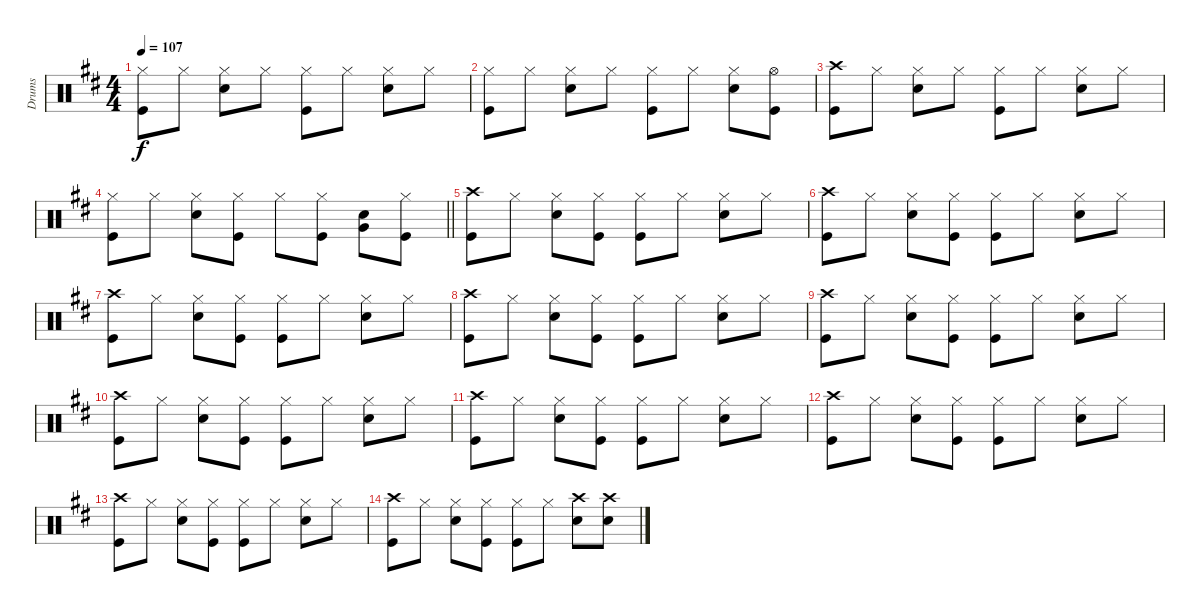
\track ("Drums" "Drums") {instrument percussion}
\staff {score}
\articulation defaults
\ts (4 4)
\tempo 107
\clef neutral
\ks d
("Hi-Hat (closed)" "Kick (hit)").8{dy f} "Hi-Hat (closed)".8 ("Hi-Hat (closed)" "Snare (hit) 2").8 "Hi-Hat (closed)".8 ("Hi-Hat (closed)" "Kick (hit)").8 "Hi-Hat (closed)".8 ("Hi-Hat (closed)" "Snare (hit) 2").8 "Hi-Hat (closed)".8 |
("Hi-Hat (closed)" "Kick (hit)").8 "Hi-Hat (closed)".8 ("Hi-Hat (closed)" "Snare (hit) 2").8 "Hi-Hat (closed)".8 ("Hi-Hat (closed)" "Kick (hit)").8 "Hi-Hat (closed)".8 ("Hi-Hat (closed)" "Snare (hit) 2").8 ("Hi-Hat (open)" "Kick (hit)").8 |
("Crash high (hit)" "Kick (hit)").8 "Hi-Hat (closed)".8 ("Hi-Hat (closed)" "Snare (hit) 2").8 "Hi-Hat (closed)".8 ("Hi-Hat (closed)" "Kick (hit)").8 "Hi-Hat (closed)".8 ("Hi-Hat (closed)" "Snare (hit) 2").8 "Hi-Hat (closed)".8 |
\barLineRight lightlight
("Hi-Hat (closed)" "Kick (hit)").8 "Hi-Hat (closed)".8 ("Hi-Hat (closed)" "Snare (hit) 2").8 ("Hi-Hat (closed)" "Kick (hit)").8 "Hi-Hat (closed)".8 ("Hi-Hat (closed)" "Kick (hit)").8 ("Snare (hit) 2" "Very Low Tom (hit)").8 ("Hi-Hat (closed)" "Kick (hit)").8 |
("Crash high (hit)" "Kick (hit)").8 "Hi-Hat (closed)".8 ("Hi-Hat (closed)" "Snare (hit) 2").8 ("Hi-Hat (closed)" "Kick (hit)").8 ("Hi-Hat (closed)" "Kick (hit)").8 "Hi-Hat (closed)".8 ("Hi-Hat (closed)" "Snare (hit) 2").8 "Hi-Hat (closed)".8 |
("Crash high (hit)" "Kick (hit)").8 "Hi-Hat (closed)".8 ("Hi-Hat (closed)" "Snare (hit) 2").8 ("Hi-Hat (closed)" "Kick (hit)").8 ("Hi-Hat (closed)" "Kick (hit)").8 "Hi-Hat (closed)".8 ("Hi-Hat (closed)" "Snare (hit) 2").8 "Hi-Hat (closed)".8 |
("Crash high (hit)" "Kick (hit)").8 "Hi-Hat (closed)".8 ("Hi-Hat (closed)" "Snare (hit) 2").8 ("Hi-Hat (closed)" "Kick (hit)").8 ("Hi-Hat (closed)" "Kick (hit)").8 "Hi-Hat (closed)".8 ("Hi-Hat (closed)" "Snare (hit) 2").8 "Hi-Hat (closed)".8 |
("Crash high (hit)" "Kick (hit)").8 "Hi-Hat (closed)".8 ("Hi-Hat (closed)" "Snare (hit) 2").8 ("Hi-Hat (closed)" "Kick (hit)").8 ("Hi-Hat (closed)" "Kick (hit)").8 "Hi-Hat (closed)".8 ("Hi-Hat (closed)" "Snare (hit) 2").8 "Hi-Hat (closed)".8 |
("Crash high (hit)" "Kick (hit)").8 "Hi-Hat (closed)".8 ("Hi-Hat (closed)" "Snare (hit) 2").8 ("Hi-Hat (closed)" "Kick (hit)").8 ("Hi-Hat (closed)" "Kick (hit)").8 "Hi-Hat (closed)".8 ("Hi-Hat (closed)" "Snare (hit) 2").8 "Hi-Hat (closed)".8 |
("Crash high (hit)" "Kick (hit)").8 "Hi-Hat (closed)".8 ("Hi-Hat (closed)" "Snare (hit) 2").8 ("Hi-Hat (closed)" "Kick (hit)").8 ("Hi-Hat (closed)" "Kick (hit)").8 "Hi-Hat (closed)".8 ("Hi-Hat (closed)" "Snare (hit) 2").8 "Hi-Hat (closed)".8 |
("Crash high (hit)" "Kick (hit)").8 "Hi-Hat (closed)".8 ("Hi-Hat (closed)" "Snare (hit) 2").8 ("Hi-Hat (closed)" "Kick (hit)").8 ("Hi-Hat (closed)" "Kick (hit)").8 "Hi-Hat (closed)".8 ("Hi-Hat (closed)" "Snare (hit) 2").8 "Hi-Hat (closed)".8 |
("Crash high (hit)" "Kick (hit)").8 "Hi-Hat (closed)".8 ("Hi-Hat (closed)" "Snare (hit) 2").8 ("Hi-Hat (closed)" "Kick (hit)").8 ("Hi-Hat (closed)" "Kick (hit)").8 "Hi-Hat (closed)".8 ("Hi-Hat (closed)" "Snare (hit) 2").8 "Hi-Hat (closed)".8 |
("Crash high (hit)" "Kick (hit)").8 "Hi-Hat (closed)".8 ("Hi-Hat (closed)" "Snare (hit) 2").8 ("Hi-Hat (closed)" "Kick (hit)").8 ("Hi-Hat (closed)" "Kick (hit)").8 "Hi-Hat (closed)".8 ("Hi-Hat (closed)" "Snare (hit) 2").8 "Hi-Hat (closed)".8 |
("Crash high (hit)" "Kick (hit)").8 "Hi-Hat (closed)".8 ("Hi-Hat (closed)" "Snare (hit) 2").8 ("Hi-Hat (closed)" "Kick (hit)").8 ("Hi-Hat (closed)" "Kick (hit)").8 "Hi-Hat (closed)".8 ("Crash high (hit)" "Snare (hit) 2").8 ("Crash high (hit)" "Snare (hit) 2").8
